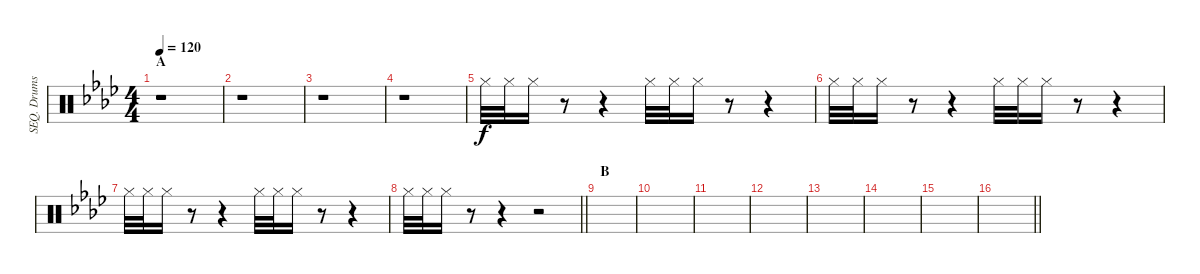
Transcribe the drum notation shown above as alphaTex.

\track ("SEQ. Drums" "SEQ. Drums") {instrument percussion}
\staff {score}
\articulation defaults
\ts (4 4)
\section ("" "A")
\tempo 120
\clef neutral
\ks ab
r.1{dy f} |
r.1 |
r.1 |
r.1 |
"Hi-Hat (closed)".32 "Hi-Hat (closed)".32 "Hi-Hat (closed)".16 r.8 r.4 "Hi-Hat (closed)".32 "Hi-Hat (closed)".32 "Hi-Hat (closed)".16 r.8 r.4 |
"Hi-Hat (closed)".32 "Hi-Hat (closed)".32 "Hi-Hat (closed)".16 r.8 r.4 "Hi-Hat (closed)".32 "Hi-Hat (closed)".32 "Hi-Hat (closed)".16 r.8 r.4 |
"Hi-Hat (closed)".32 "Hi-Hat (closed)".32 "Hi-Hat (closed)".16 r.8 r.4 "Hi-Hat (closed)".32 "Hi-Hat (closed)".32 "Hi-Hat (closed)".16 r.8 r.4 |
\barLineRight lightlight "Hi-Hat (closed)".32 "Hi-Hat (closed)".32 "Hi-Hat (closed)".16
r.8 r.4 r.2 |
\section ("" "B")
|
|
|
|
|
|
|
\barLineRight lightlight
